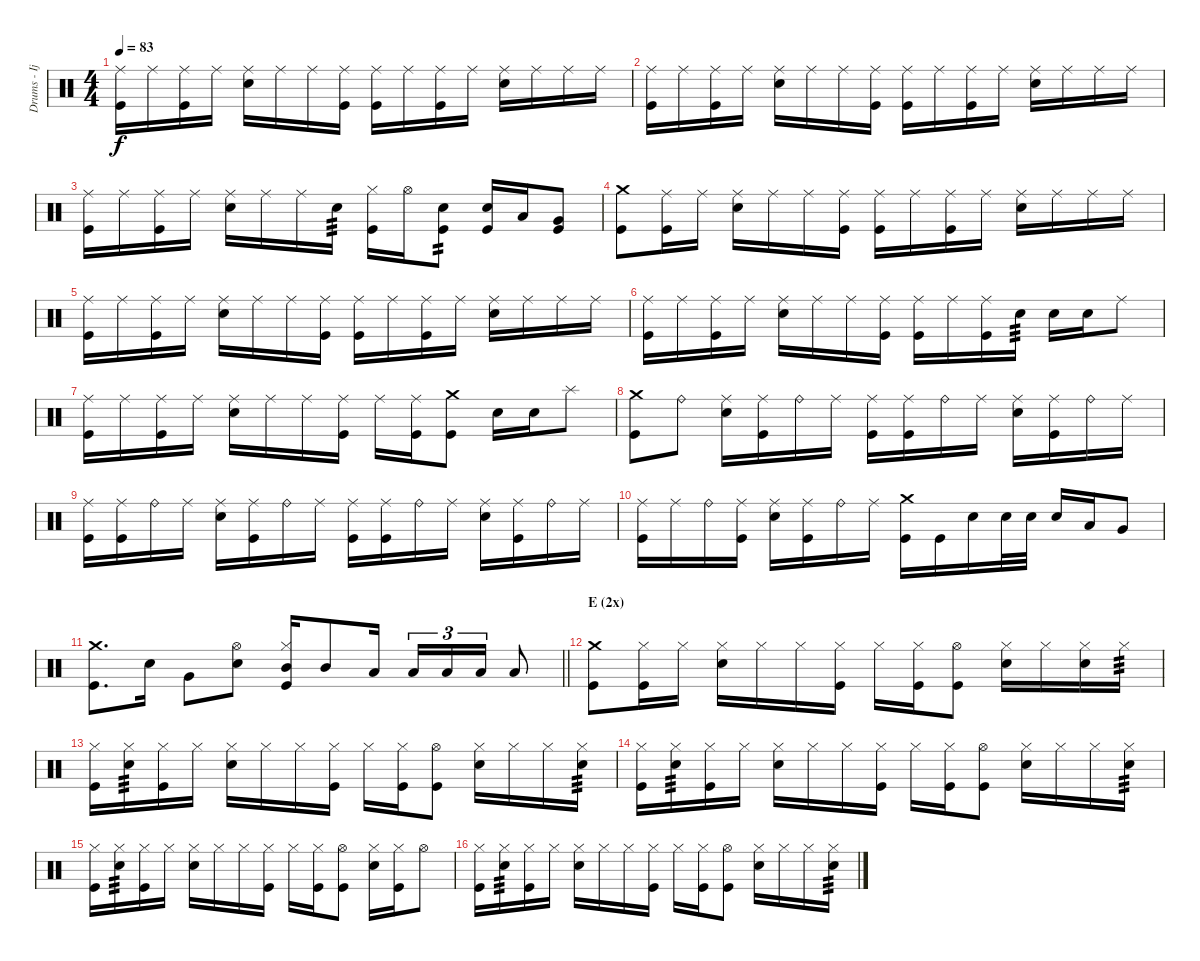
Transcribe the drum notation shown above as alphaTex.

\track ("Drums - Ijichi" "Drums - Ij") {instrument percussion}
\staff {score}
\articulation defaults
\ts (4 4)
\tempo 83
\clef neutral
\ks c
("Ride (middle)" "Kick (hit)").16{dy f} "Ride (middle)".16 ("Ride (middle)" "Kick (hit)").16 "Ride (middle)".16 ("Ride (middle)" "Electric Snare (hit)").16 "Ride (middle)".16 "Ride (middle)".16 ("Ride (middle)" "Kick (hit)").16 ("Ride (middle)" "Kick (hit)").16 "Ride (middle)".16 ("Ride (middle)" "Kick (hit)").16 "Ride (middle)".16 ("Ride (middle)" "Electric Snare (hit)").16 "Ride (middle)".16 "Ride (middle)".16 "Ride (middle)".16 |
("Ride (middle)" "Kick (hit)").16 "Ride (middle)".16 ("Ride (middle)" "Kick (hit)").16 "Ride (middle)".16 ("Ride (middle)" "Electric Snare (hit)").16 "Ride (middle)".16 "Ride (middle)".16 ("Ride (middle)" "Kick (hit)").16 ("Ride (middle)" "Kick (hit)").16 "Ride (middle)".16 ("Ride (middle)" "Kick (hit)").16 "Ride (middle)".16 ("Ride (middle)" "Electric Snare (hit)").16 "Ride (middle)".16 "Ride (middle)".16 "Ride (middle)".16 |
("Ride (middle)" "Kick (hit)").16 "Ride (middle)".16 ("Ride (middle)" "Kick (hit)").16 "Ride (middle)".16 ("Ride (middle)" "Electric Snare (hit)").16 "Ride (middle)".16 "Ride (middle)".16 "Electric Snare (hit)".16{tp 3} ("Hi-Hat (closed)" "Kick (hit)").16 "Hi-Hat (open)".16 ("Electric Snare (hit)" "Kick (hit)").8{tp 2} ("Electric Snare (hit)" "Kick (hit)").16 "Low Tom (hit)".16 ("Very Low Tom (hit)" "Kick (hit)").8 |
("Crash medium (hit)" "Kick (hit)").8 ("Ride (middle)" "Kick (hit)").16 "Ride (middle)".16 ("Ride (middle)" "Electric Snare (hit)").16 "Ride (middle)".16 "Ride (middle)".16 ("Ride (middle)" "Kick (hit)").16 ("Ride (middle)" "Kick (hit)").16 "Ride (middle)".16 ("Ride (middle)" "Kick (hit)").16 "Ride (middle)".16 ("Ride (middle)" "Electric Snare (hit)").16 "Ride (middle)".16 "Ride (middle)".16 "Ride (middle)".16 |
("Ride (middle)" "Kick (hit)").16 "Ride (middle)".16 ("Ride (middle)" "Kick (hit)").16 "Ride (middle)".16 ("Ride (middle)" "Electric Snare (hit)").16 "Ride (middle)".16 "Ride (middle)".16 ("Ride (middle)" "Kick (hit)").16 ("Ride (middle)" "Kick (hit)").16 "Ride (middle)".16 ("Ride (middle)" "Kick (hit)").16 "Ride (middle)".16 ("Ride (middle)" "Electric Snare (hit)").16 "Ride (middle)".16 "Ride (middle)".16 "Ride (middle)".16 |
("Ride (middle)" "Kick (hit)").16 "Ride (middle)".16 ("Ride (middle)" "Kick (hit)").16 "Ride (middle)".16 ("Ride (middle)" "Electric Snare (hit)").16 "Ride (middle)".16 "Ride (middle)".16 ("Ride (middle)" "Kick (hit)").16 ("Ride (middle)" "Kick (hit)").16 "Ride (middle)".16 ("Ride (middle)" "Kick (hit)").16 "Electric Snare (hit)".16{tp 3} "Electric Snare (hit)".16 "Electric Snare (hit)".16 "Ride (middle)".8 |
("Ride (middle)" "Kick (hit)").16 "Ride (middle)".16 ("Ride (middle)" "Kick (hit)").16 "Ride (middle)".16 ("Ride (middle)" "Electric Snare (hit)").16 "Ride (middle)".16 "Ride (middle)".16 ("Ride (middle)" "Kick (hit)").16 "Ride (middle)".16 ("Ride (middle)" "Kick (hit)").16 ("Crash medium (hit)" "Kick (hit)").8 "Electric Snare (hit)".16 "Electric Snare (hit)".16 "Splash (hit)".8 |
("Crash medium (hit)" "Kick (hit)").8 "Ride (bell)".8 ("Ride (middle)" "Electric Snare (hit)").16 ("Ride (middle)" "Kick (hit)").16 "Ride (bell)".16 "Ride (middle)".16 ("Ride (middle)" "Kick (hit)").16 ("Ride (middle)" "Kick (hit)").16 "Ride (bell)".16 "Ride (middle)".16 ("Ride (middle)" "Electric Snare (hit)").16 ("Ride (middle)" "Kick (hit)").16 "Ride (bell)".16 "Ride (middle)".16 |
("Ride (middle)" "Kick (hit)").16 ("Ride (middle)" "Kick (hit)").16 "Ride (bell)".16 "Ride (middle)".16 ("Ride (middle)" "Electric Snare (hit)").16 ("Ride (middle)" "Kick (hit)").16 "Ride (bell)".16 "Ride (middle)".16 ("Ride (middle)" "Kick (hit)").16 ("Ride (middle)" "Kick (hit)").16 "Ride (bell)".16 "Ride (middle)".16 ("Ride (middle)" "Electric Snare (hit)").16 ("Ride (middle)" "Kick (hit)").16 "Ride (bell)".16 "Ride (middle)".16 |
("Ride (middle)" "Kick (hit)").16 "Ride (middle)".16 "Ride (bell)".16 ("Ride (middle)" "Kick (hit)").16 ("Ride (middle)" "Electric Snare (hit)").16 ("Ride (middle)" "Kick (hit)").16 "Ride (bell)".16 "Ride (middle)".16 ("Crash medium (hit)" "Kick (hit)").16 "Kick (hit)".16 "Electric Snare (hit)".16 "Electric Snare (hit)".32 "Electric Snare (hit)".32 "Electric Snare (hit)".16 "Low Tom (hit)".16 "Very Low Tom (hit)".8 |
\barLineRight lightlight
("Crash medium (hit)" "Kick (hit)").8{d} "Electric Snare (hit)".16 "Very Low Tom (hit)".8 ("Hi-Hat (open)" "Electric Snare (hit)").8 ("Hi-Hat (closed)" "Mid Tom (hit)" "Kick (hit)").16 "Mid Tom (hit)".8 "Low Tom (hit)".16 "Low Tom (hit)".16{tu (3 2)} "Low Tom (hit)".16{tu (3 2)} "Low Tom (hit)".16{tu (3 2)} "Low Tom (hit)".8 |
\section ("" "E (2x)")
("Crash medium (hit)" "Kick (hit)").8 ("Hi-Hat (closed)" "Kick (hit)").16 "Hi-Hat (closed)".16 ("Hi-Hat (closed)" "Electric Snare (hit)").16 "Hi-Hat (closed)".16 "Hi-Hat (closed)".16 ("Hi-Hat (closed)" "Kick (hit)").16 "Hi-Hat (closed)".16 ("Hi-Hat (closed)" "Kick (hit)").16 ("Hi-Hat (open)" "Kick (hit)").8 ("Hi-Hat (closed)" "Electric Snare (hit)").16 "Hi-Hat (closed)".16 ("Hi-Hat (closed)" "Electric Snare (hit)").16 "Hi-Hat (closed)".16{tp 3} |
("Hi-Hat (closed)" "Kick (hit)").16 ("Hi-Hat (closed)" "Electric Snare (hit)").16{tp 3} ("Hi-Hat (closed)" "Kick (hit)").16 "Hi-Hat (closed)".16 ("Hi-Hat (closed)" "Electric Snare (hit)").16 "Hi-Hat (closed)".16 "Hi-Hat (closed)".16 ("Hi-Hat (closed)" "Kick (hit)").16 "Hi-Hat (closed)".16 ("Hi-Hat (closed)" "Kick (hit)").16 ("Hi-Hat (open)" "Kick (hit)").8 ("Hi-Hat (closed)" "Electric Snare (hit)").16 "Hi-Hat (closed)".16 "Hi-Hat (closed)".16 ("Hi-Hat (closed)" "Electric Snare (hit)").16{tp 3} |
("Hi-Hat (closed)" "Kick (hit)").16 ("Hi-Hat (closed)" "Electric Snare (hit)").16{tp 3} ("Hi-Hat (closed)" "Kick (hit)").16 "Hi-Hat (closed)".16 ("Hi-Hat (closed)" "Electric Snare (hit)").16 "Hi-Hat (closed)".16 "Hi-Hat (closed)".16 ("Hi-Hat (closed)" "Kick (hit)").16 "Hi-Hat (closed)".16 ("Hi-Hat (closed)" "Kick (hit)").16 ("Hi-Hat (open)" "Kick (hit)").8 ("Hi-Hat (closed)" "Electric Snare (hit)").16 "Hi-Hat (closed)".16 "Hi-Hat (closed)".16 ("Hi-Hat (closed)" "Electric Snare (hit)").16{tp 3} |
("Hi-Hat (closed)" "Kick (hit)").16 ("Hi-Hat (closed)" "Electric Snare (hit)").16{tp 3} ("Hi-Hat (closed)" "Kick (hit)").16 "Hi-Hat (closed)".16 ("Hi-Hat (closed)" "Electric Snare (hit)").16 "Hi-Hat (closed)".16 "Hi-Hat (closed)".16 ("Hi-Hat (closed)" "Kick (hit)").16 "Hi-Hat (closed)".16 ("Hi-Hat (closed)" "Kick (hit)").16 ("Hi-Hat (open)" "Kick (hit)").8 ("Hi-Hat (closed)" "Electric Snare (hit)").16 ("Hi-Hat (closed)" "Kick (hit)").16 "Hi-Hat (open)".8 |
("Hi-Hat (closed)" "Kick (hit)").16 ("Hi-Hat (closed)" "Electric Snare (hit)").16{tp 3} ("Hi-Hat (closed)" "Kick (hit)").16 "Hi-Hat (closed)".16 ("Hi-Hat (closed)" "Electric Snare (hit)").16 "Hi-Hat (closed)".16 "Hi-Hat (closed)".16 ("Hi-Hat (closed)" "Kick (hit)").16 "Hi-Hat (closed)".16 ("Hi-Hat (closed)" "Kick (hit)").16 ("Hi-Hat (open)" "Kick (hit)").8 ("Hi-Hat (closed)" "Electric Snare (hit)").16 "Hi-Hat (closed)".16 "Hi-Hat (closed)".16 ("Hi-Hat (closed)" "Electric Snare (hit)").16{tp 3}
